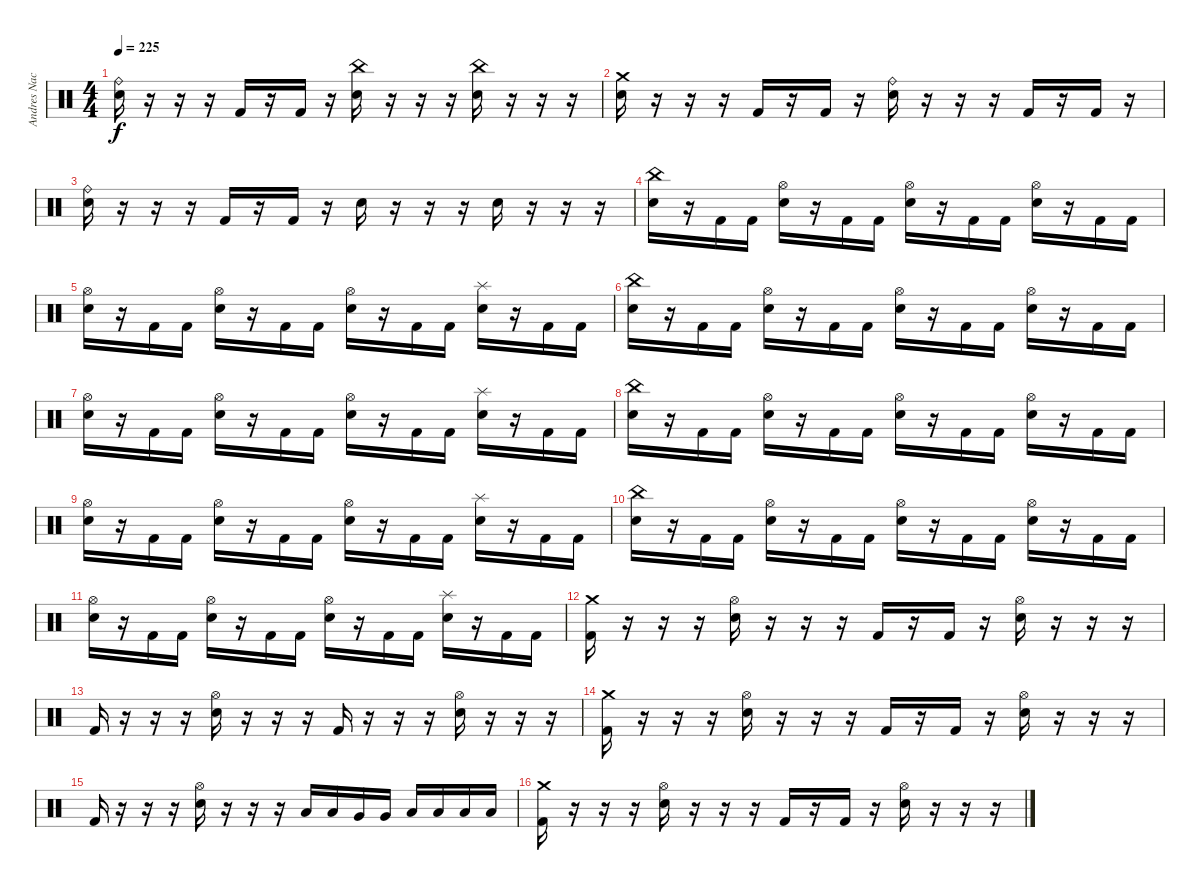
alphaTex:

\track ("Andres Nacrur" "Andres Nac") {instrument percussion}
\staff {score}
\articulation defaults
\ts (4 4)
\tempo 225
\clef neutral
\ks c
("Ride (bell)" "Snare (hit) 2").16{dy f} r.16 r.16 r.16 "Kick (hit) 2".16 r.16 "Kick (hit) 2".16 r.16 ("China (hit)" "Snare (hit) 2").16 r.16 r.16 r.16 ("China (hit)" "Snare (hit) 2").16 r.16 r.16 r.16 |
("Crash medium (hit)" "Snare (hit) 2").16 r.16 r.16 r.16 "Kick (hit) 2".16 r.16 "Kick (hit) 2".16 r.16 ("Ride (bell)" "Snare (hit) 2").16 r.16 r.16 r.16 "Kick (hit) 2".16 r.16 "Kick (hit) 2".16 r.16 |
("Ride (bell)" "Snare (hit) 2").16 r.16 r.16 r.16 "Kick (hit) 2".16 r.16 "Kick (hit) 2".16 r.16 "Snare (hit) 2".16 r.16 r.16 r.16 "Snare (hit) 2".16 r.16 r.16 r.16 |
("China (hit)" "Snare (hit) 2").16 r.16 "Kick (hit) 2".16 "Kick (hit) 2".16 ("Hi-Hat (open)" "Snare (hit) 2").16 r.16 "Kick (hit) 2".16 "Kick (hit) 2".16 ("Hi-Hat (open)" "Snare (hit) 2").16 r.16 "Kick (hit) 2".16 "Kick (hit) 2".16 ("Hi-Hat (open)" "Snare (hit) 2").16 r.16 "Kick (hit) 2".16 "Kick (hit) 2".16 |
("Hi-Hat (open)" "Snare (hit) 2").16 r.16 "Kick (hit) 2".16 "Kick (hit) 2".16 ("Hi-Hat (open)" "Snare (hit) 2").16 r.16 "Kick (hit) 2".16 "Kick (hit) 2".16 ("Hi-Hat (open)" "Snare (hit) 2").16 r.16 "Kick (hit) 2".16 "Kick (hit) 2".16 ("Splash (hit)" "Snare (hit) 2").16 r.16 "Kick (hit) 2".16 "Kick (hit) 2".16 |
("China (hit)" "Snare (hit) 2").16 r.16 "Kick (hit) 2".16 "Kick (hit) 2".16 ("Hi-Hat (open)" "Snare (hit) 2").16 r.16 "Kick (hit) 2".16 "Kick (hit) 2".16 ("Hi-Hat (open)" "Snare (hit) 2").16 r.16 "Kick (hit) 2".16 "Kick (hit) 2".16 ("Hi-Hat (open)" "Snare (hit) 2").16 r.16 "Kick (hit) 2".16 "Kick (hit) 2".16 |
("Hi-Hat (open)" "Snare (hit) 2").16 r.16 "Kick (hit) 2".16 "Kick (hit) 2".16 ("Hi-Hat (open)" "Snare (hit) 2").16 r.16 "Kick (hit) 2".16 "Kick (hit) 2".16 ("Hi-Hat (open)" "Snare (hit) 2").16 r.16 "Kick (hit) 2".16 "Kick (hit) 2".16 ("Splash (hit)" "Snare (hit) 2").16 r.16 "Kick (hit) 2".16 "Kick (hit) 2".16 |
("China (hit)" "Snare (hit) 2").16 r.16 "Kick (hit) 2".16 "Kick (hit) 2".16 ("Hi-Hat (open)" "Snare (hit) 2").16 r.16 "Kick (hit) 2".16 "Kick (hit) 2".16 ("Hi-Hat (open)" "Snare (hit) 2").16 r.16 "Kick (hit) 2".16 "Kick (hit) 2".16 ("Hi-Hat (open)" "Snare (hit) 2").16 r.16 "Kick (hit) 2".16 "Kick (hit) 2".16 |
("Hi-Hat (open)" "Snare (hit) 2").16 r.16 "Kick (hit) 2".16 "Kick (hit) 2".16 ("Hi-Hat (open)" "Snare (hit) 2").16 r.16 "Kick (hit) 2".16 "Kick (hit) 2".16 ("Hi-Hat (open)" "Snare (hit) 2").16 r.16 "Kick (hit) 2".16 "Kick (hit) 2".16 ("Splash (hit)" "Snare (hit) 2").16 r.16 "Kick (hit) 2".16 "Kick (hit) 2".16 |
("China (hit)" "Snare (hit) 2").16 r.16 "Kick (hit) 2".16 "Kick (hit) 2".16 ("Hi-Hat (open)" "Snare (hit) 2").16 r.16 "Kick (hit) 2".16 "Kick (hit) 2".16 ("Hi-Hat (open)" "Snare (hit) 2").16 r.16 "Kick (hit) 2".16 "Kick (hit) 2".16 ("Hi-Hat (open)" "Snare (hit) 2").16 r.16 "Kick (hit) 2".16 "Kick (hit) 2".16 |
("Hi-Hat (open)" "Snare (hit) 2").16 r.16 "Kick (hit) 2".16 "Kick (hit) 2".16 ("Hi-Hat (open)" "Snare (hit) 2").16 r.16 "Kick (hit) 2".16 "Kick (hit) 2".16 ("Hi-Hat (open)" "Snare (hit) 2").16 r.16 "Kick (hit) 2".16 "Kick (hit) 2".16 ("Splash (hit)" "Snare (hit) 2").16 r.16 "Kick (hit) 2".16 "Kick (hit) 2".16 |
("Crash medium (hit)" "Kick (hit) 2").16 r.16 r.16 r.16 ("Hi-Hat (open)" "Snare (hit) 2").16 r.16 r.16 r.16 "Kick (hit) 2".16 r.16 "Kick (hit) 2".16 r.16 ("Hi-Hat (open)" "Snare (hit) 2").16 r.16 r.16 r.16 |
"Kick (hit) 2".16 r.16 r.16 r.16 ("Hi-Hat (open)" "Snare (hit) 2").16 r.16 r.16 r.16 "Kick (hit) 2".16 r.16 r.16 r.16 ("Hi-Hat (open)" "Snare (hit) 2").16 r.16 r.16 r.16 |
("Crash medium (hit)" "Kick (hit) 2").16 r.16 r.16 r.16 ("Hi-Hat (open)" "Snare (hit) 2").16 r.16 r.16 r.16 "Kick (hit) 2".16 r.16 "Kick (hit) 2".16 r.16 ("Hi-Hat (open)" "Snare (hit) 2").16 r.16 r.16 r.16 |
"Kick (hit) 2".16 r.16 r.16 r.16 ("Hi-Hat (open)" "Snare (hit) 2").16 r.16 r.16 r.16 "Low Tom (hit)".16 "Low Tom (hit)".16 "Very Low Tom (hit)".16 "Very Low Tom (hit)".16 "Low Floor Tom (hit)".16 "Low Floor Tom (hit)".16 "Low Floor Tom (hit)".16 "Low Floor Tom (hit)".16 |
("Crash medium (hit)" "Kick (hit) 2").16 r.16 r.16 r.16 ("Hi-Hat (open)" "Snare (hit) 2").16 r.16 r.16 r.16 "Kick (hit) 2".16 r.16 "Kick (hit) 2".16 r.16 ("Hi-Hat (open)" "Snare (hit) 2").16 r.16 r.16 r.16
